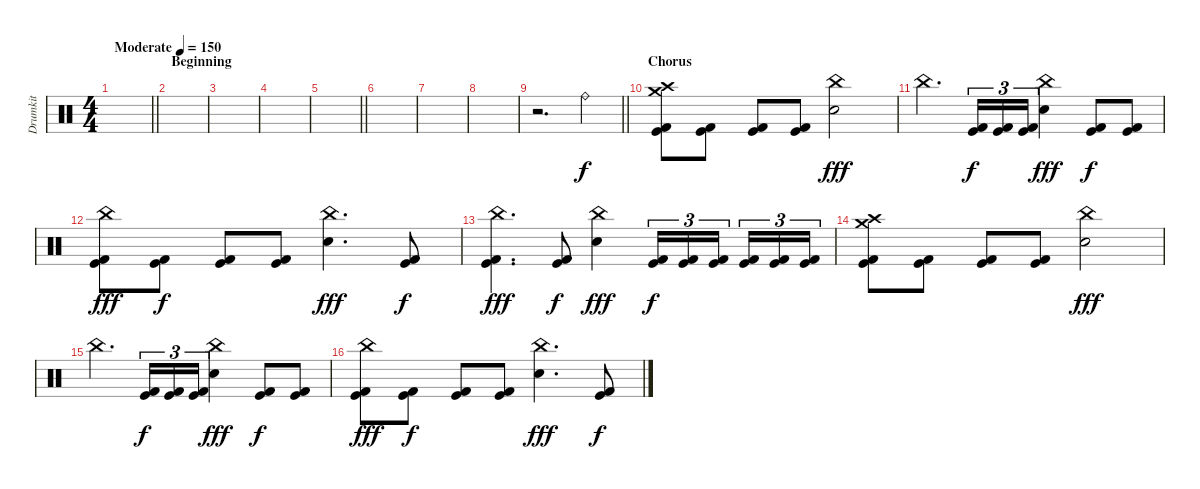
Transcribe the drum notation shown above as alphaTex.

\track ("Drumkit" "Drumkit") {instrument percussion}
\staff {score}
\articulation defaults
\ts (4 4)
\tempo (150 "Moderate")
\clef neutral
\barLineRight lightlight
\ks c
|
\section ("" "Beginning")
|
|
|
\barLineRight lightlight
|
|
|
|
\barLineRight lightlight
r.2{d} "Ride (bell)".4 |
\section ("" "Chorus")
("Crash high (hit)" "Crash medium (hit)" "Kick (hit)" "Kick (hit) 2").8 ("Kick (hit)" "Kick (hit) 2").8 ("Kick (hit)" "Kick (hit) 2").8 ("Kick (hit)" "Kick (hit) 2").8 ("China (hit)" "Electric Snare (hit)").2{dy fff} |
"China (hit)".4{d} ("Kick (hit)" "Kick (hit) 2").16{tu (3 2) dy f} ("Kick (hit)" "Kick (hit) 2").16{tu (3 2)} ("Kick (hit)" "Kick (hit) 2").16{tu (3 2)} ("China (hit)" "Electric Snare (hit)").4{dy fff} ("Kick (hit)" "Kick (hit) 2").8{dy f} ("Kick (hit)" "Kick (hit) 2").8 |
("China (hit)" "Kick (hit)" "Kick (hit) 2").8{dy fff} ("Kick (hit)" "Kick (hit) 2").8{dy f} ("Kick (hit)" "Kick (hit) 2").8 ("Kick (hit)" "Kick (hit) 2").8 ("China (hit)" "Electric Snare (hit)").4{d dy fff} ("Kick (hit)" "Kick (hit) 2").8{dy f} |
("China (hit)" "Kick (hit)" "Kick (hit) 2").4{d dy fff} ("Kick (hit)" "Kick (hit) 2").8{dy f} ("China (hit)" "Electric Snare (hit)").4{dy fff} ("Kick (hit)" "Kick (hit) 2").16{tu (3 2) dy f} ("Kick (hit)" "Kick (hit) 2").16{tu (3 2)} ("Kick (hit)" "Kick (hit) 2").16{tu (3 2) beam splitsecondary} ("Kick (hit)" "Kick (hit) 2").16{tu (3 2)} ("Kick (hit)" "Kick (hit) 2").16{tu (3 2)} ("Kick (hit)" "Kick (hit) 2").16{tu (3 2)} |
("Crash high (hit)" "Crash medium (hit)" "Kick (hit)" "Kick (hit) 2").8 ("Kick (hit)" "Kick (hit) 2").8 ("Kick (hit)" "Kick (hit) 2").8 ("Kick (hit)" "Kick (hit) 2").8 ("China (hit)" "Electric Snare (hit)").2{dy fff} |
"China (hit)".4{d} ("Kick (hit)" "Kick (hit) 2").16{tu (3 2) dy f} ("Kick (hit)" "Kick (hit) 2").16{tu (3 2)} ("Kick (hit)" "Kick (hit) 2").16{tu (3 2)} ("China (hit)" "Electric Snare (hit)").4{dy fff} ("Kick (hit)" "Kick (hit) 2").8{dy f} ("Kick (hit)" "Kick (hit) 2").8 |
("China (hit)" "Kick (hit)" "Kick (hit) 2").8{dy fff} ("Kick (hit)" "Kick (hit) 2").8{dy f} ("Kick (hit)" "Kick (hit) 2").8 ("Kick (hit)" "Kick (hit) 2").8 ("China (hit)" "Electric Snare (hit)").4{d dy fff} ("Kick (hit)" "Kick (hit) 2").8{dy f}
